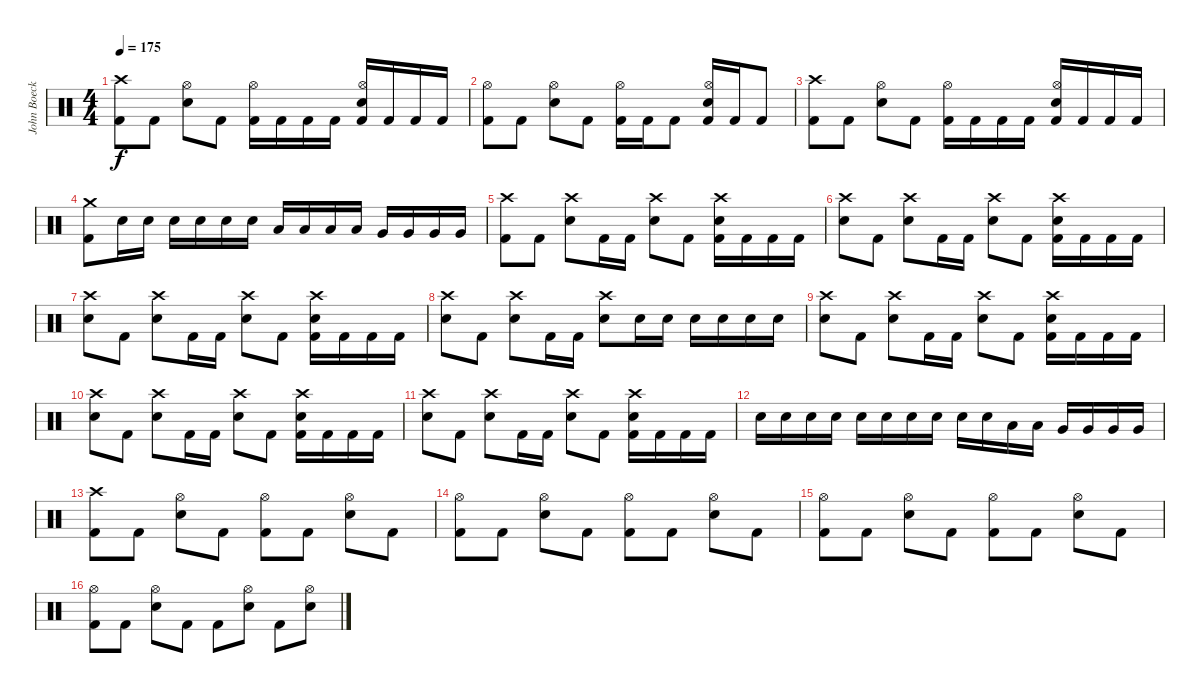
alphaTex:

\track ("John Boecklin (Drums)" "John Boeck") {instrument percussion}
\staff {score}
\articulation defaults
\ts (4 4)
\tempo 175
\clef neutral
\ks c
("Crash high (hit)" "Kick (hit) 2").8{dy f} "Kick (hit) 2".8 ("Hi-Hat (open)" "Snare (hit) 2").8 "Kick (hit) 2".8 ("Hi-Hat (open)" "Kick (hit) 2").16 "Kick (hit) 2".16 "Kick (hit) 2".16 "Kick (hit) 2".16 ("Hi-Hat (open)" "Snare (hit) 2" "Kick (hit) 2").16 "Kick (hit) 2".16 "Kick (hit) 2".16 "Kick (hit) 2".16 |
("Hi-Hat (open)" "Kick (hit) 2").8 "Kick (hit) 2".8 ("Hi-Hat (open)" "Snare (hit) 2").8 "Kick (hit) 2".8 ("Hi-Hat (open)" "Kick (hit) 2").16 "Kick (hit) 2".16 "Kick (hit) 2".8 ("Hi-Hat (open)" "Snare (hit) 2" "Kick (hit) 2").16 "Kick (hit) 2".16 "Kick (hit) 2".8 |
("Crash high (hit)" "Kick (hit) 2").8 "Kick (hit) 2".8 ("Hi-Hat (open)" "Snare (hit) 2").8 "Kick (hit) 2".8 ("Hi-Hat (open)" "Kick (hit) 2").16 "Kick (hit) 2".16 "Kick (hit) 2".16 "Kick (hit) 2".16 ("Hi-Hat (open)" "Snare (hit) 2" "Kick (hit) 2").16 "Kick (hit) 2".16 "Kick (hit) 2".16 "Kick (hit) 2".16 |
("Crash medium (hit)" "Kick (hit) 2").8 "Snare (hit) 2".16 "Snare (hit) 2".16 "Snare (hit) 2".16 "Snare (hit) 2".16 "Snare (hit) 2".16 "Snare (hit) 2".16 "Low Tom (hit)".16 "Low Tom (hit)".16 "Low Tom (hit)".16 "Low Tom (hit)".16 "Very Low Tom (hit)".16 "Very Low Tom (hit)".16 "Very Low Tom (hit)".16 "Very Low Tom (hit)".16 |
("Crash high (hit)" "Kick (hit) 2").8 "Kick (hit) 2".8 ("Crash high (hit)" "Snare (hit) 2").8 "Kick (hit) 2".16 "Kick (hit) 2".16 ("Crash high (hit)" "Snare (hit) 2").8 "Kick (hit) 2".8 ("Crash high (hit)" "Snare (hit) 2" "Kick (hit) 2").16 "Kick (hit) 2".16 "Kick (hit) 2".16 "Kick (hit) 2".16 |
("Crash high (hit)" "Snare (hit) 2").8 "Kick (hit) 2".8 ("Crash high (hit)" "Snare (hit) 2").8 "Kick (hit) 2".16 "Kick (hit) 2".16 ("Crash high (hit)" "Snare (hit) 2").8 "Kick (hit) 2".8 ("Crash high (hit)" "Snare (hit) 2" "Kick (hit) 2").16 "Kick (hit) 2".16 "Kick (hit) 2".16 "Kick (hit) 2".16 |
("Crash high (hit)" "Snare (hit) 2").8 "Kick (hit) 2".8 ("Crash high (hit)" "Snare (hit) 2").8 "Kick (hit) 2".16 "Kick (hit) 2".16 ("Crash high (hit)" "Snare (hit) 2").8 "Kick (hit) 2".8 ("Crash high (hit)" "Snare (hit) 2" "Kick (hit) 2").16 "Kick (hit) 2".16 "Kick (hit) 2".16 "Kick (hit) 2".16 |
("Crash high (hit)" "Snare (hit) 2").8 "Kick (hit) 2".8 ("Crash high (hit)" "Snare (hit) 2").8 "Kick (hit) 2".16 "Kick (hit) 2".16 ("Crash high (hit)" "Snare (hit) 2").8 "Snare (hit) 2".16 "Snare (hit) 2".16 "Snare (hit) 2".16 "Snare (hit) 2".16 "Snare (hit) 2".16 "Snare (hit) 2".16 |
("Crash high (hit)" "Snare (hit) 2").8 "Kick (hit) 2".8 ("Crash high (hit)" "Snare (hit) 2").8 "Kick (hit) 2".16 "Kick (hit) 2".16 ("Crash high (hit)" "Snare (hit) 2").8 "Kick (hit) 2".8 ("Crash high (hit)" "Snare (hit) 2" "Kick (hit) 2").16 "Kick (hit) 2".16 "Kick (hit) 2".16 "Kick (hit) 2".16 |
("Crash high (hit)" "Snare (hit) 2").8 "Kick (hit) 2".8 ("Crash high (hit)" "Snare (hit) 2").8 "Kick (hit) 2".16 "Kick (hit) 2".16 ("Crash high (hit)" "Snare (hit) 2").8 "Kick (hit) 2".8 ("Crash high (hit)" "Snare (hit) 2" "Kick (hit) 2").16 "Kick (hit) 2".16 "Kick (hit) 2".16 "Kick (hit) 2".16 |
("Crash high (hit)" "Snare (hit) 2").8 "Kick (hit) 2".8 ("Crash high (hit)" "Snare (hit) 2").8 "Kick (hit) 2".16 "Kick (hit) 2".16 ("Crash high (hit)" "Snare (hit) 2").8 "Kick (hit) 2".8 ("Crash high (hit)" "Snare (hit) 2" "Kick (hit) 2").16 "Kick (hit) 2".16 "Kick (hit) 2".16 "Kick (hit) 2".16 |
"Snare (hit) 2".16 "Snare (hit) 2".16 "Snare (hit) 2".16 "Snare (hit) 2".16 "Snare (hit) 2".16 "Snare (hit) 2".16 "Snare (hit) 2".16 "Snare (hit) 2".16 "Snare (hit) 2".16 "Snare (hit) 2".16 "Low Tom (hit)".16 "Low Tom (hit)".16 "Very Low Tom (hit)".16 "Very Low Tom (hit)".16 "Very Low Tom (hit)".16 "Very Low Tom (hit)".16 |
("Crash high (hit)" "Kick (hit) 2").8 "Kick (hit) 2".8 ("Hi-Hat (open)" "Snare (hit) 2").8 "Kick (hit) 2".8 ("Hi-Hat (open)" "Kick (hit) 2").8 "Kick (hit) 2".8 ("Hi-Hat (open)" "Snare (hit) 2").8 "Kick (hit) 2".8 |
("Hi-Hat (open)" "Kick (hit) 2").8 "Kick (hit) 2".8 ("Hi-Hat (open)" "Snare (hit) 2").8 "Kick (hit) 2".8 ("Hi-Hat (open)" "Kick (hit) 2").8 "Kick (hit) 2".8 ("Hi-Hat (open)" "Snare (hit) 2").8 "Kick (hit) 2".8 |
("Hi-Hat (open)" "Kick (hit) 2").8 "Kick (hit) 2".8 ("Hi-Hat (open)" "Snare (hit) 2").8 "Kick (hit) 2".8 ("Hi-Hat (open)" "Kick (hit) 2").8 "Kick (hit) 2".8 ("Hi-Hat (open)" "Snare (hit) 2").8 "Kick (hit) 2".8 |
("Hi-Hat (open)" "Kick (hit) 2").8 "Kick (hit) 2".8 ("Hi-Hat (open)" "Snare (hit) 2").8 "Kick (hit) 2".8 "Kick (hit) 2".8 ("Hi-Hat (open)" "Snare (hit) 2").8 "Kick (hit) 2".8 ("Hi-Hat (open)" "Snare (hit) 2").8
